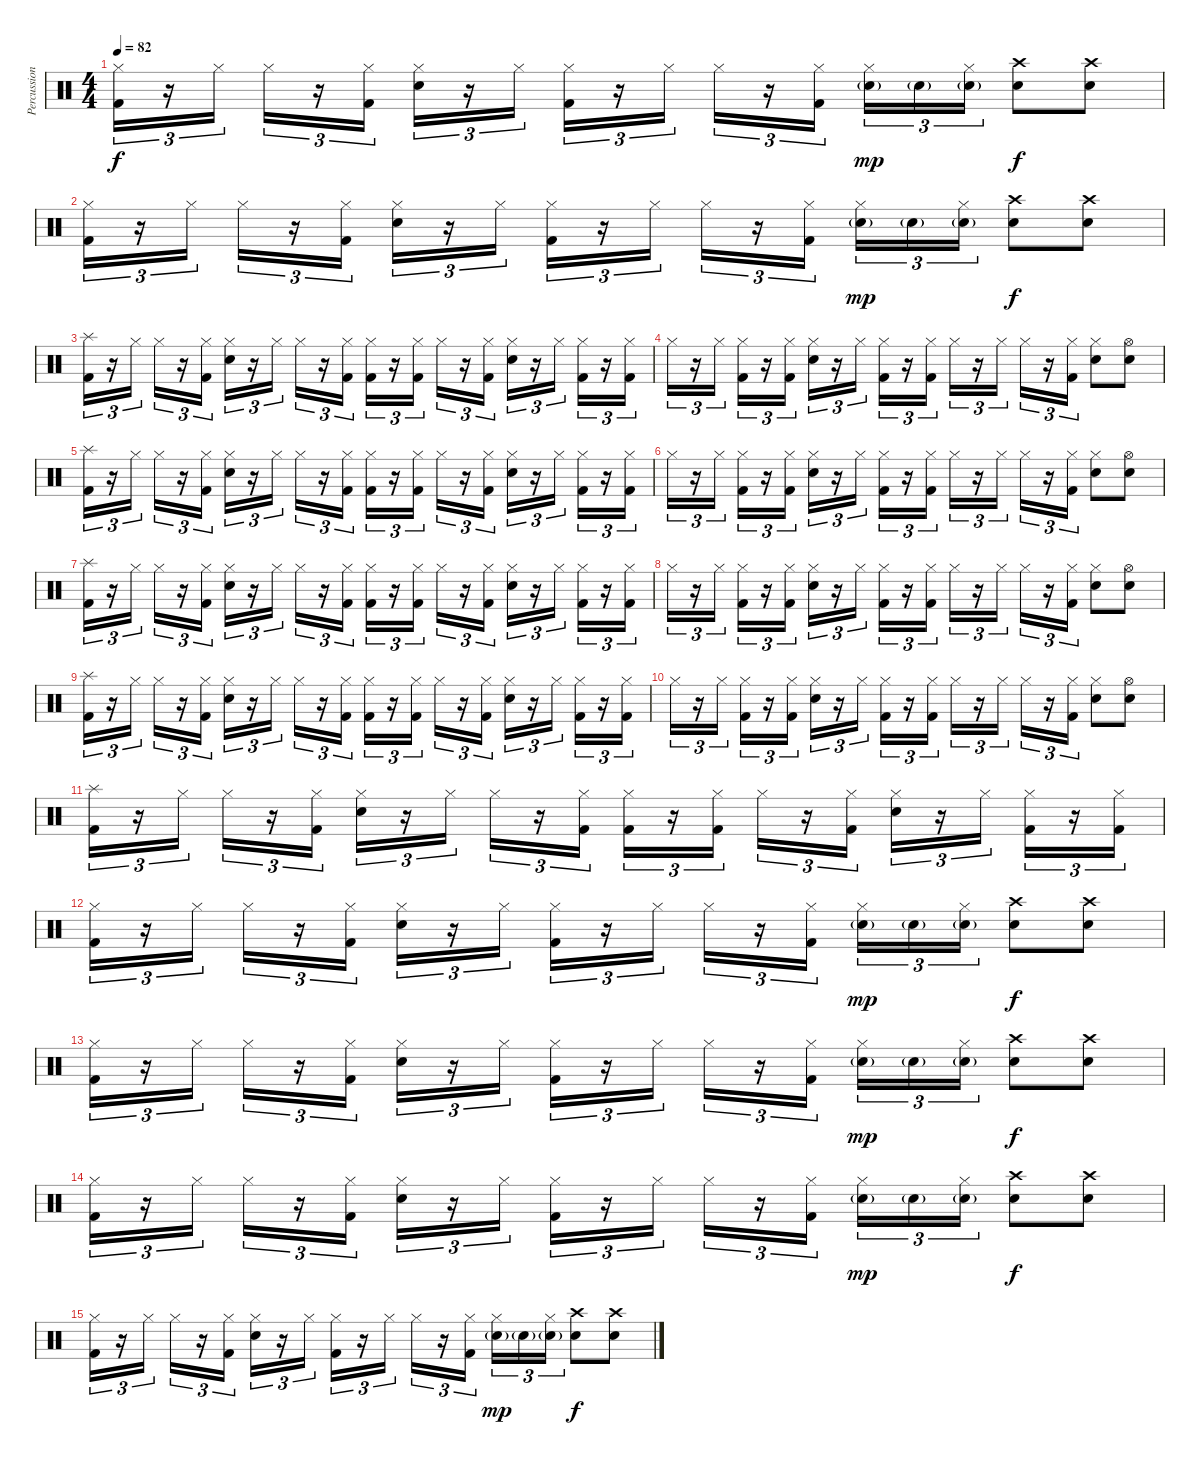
\track ("Percussioni" "Percussion") {instrument percussion}
\staff {score}
\articulation defaults
\ts (4 4)
\tempo 82
\clef neutral
\ks c
("Hi-Hat (closed)" "Kick (hit) 2").16{tu (3 2) dy f} r.16{tu (3 2)} "Hi-Hat (closed)".16{tu (3 2)} "Hi-Hat (closed)".16{tu (3 2)} r.16{tu (3 2)} ("Hi-Hat (closed)" "Kick (hit) 2").16{tu (3 2)} ("Hi-Hat (closed)" "Snare (hit) 2").16{tu (3 2)} r.16{tu (3 2)} "Hi-Hat (closed)".16{tu (3 2)} ("Hi-Hat (closed)" "Kick (hit) 2").16{tu (3 2)} r.16{tu (3 2)} "Hi-Hat (closed)".16{tu (3 2)} "Hi-Hat (closed)".16{tu (3 2)} r.16{tu (3 2)} ("Hi-Hat (closed)" "Kick (hit) 2").16{tu (3 2)} ("Hi-Hat (closed)" "Snare (hit) 2"{g}).16{tu (3 2) dy mp} "Snare (hit) 2"{g}.16{tu (3 2)} ("Hi-Hat (closed)" "Snare (hit) 2"{g}).16{tu (3 2)} ("Crash high (hit)" "Snare (hit) 2").8{dy f} ("Crash high (hit)" "Snare (hit) 2").8 |
("Hi-Hat (closed)" "Kick (hit) 2").16{tu (3 2)} r.16{tu (3 2)} "Hi-Hat (closed)".16{tu (3 2)} "Hi-Hat (closed)".16{tu (3 2)} r.16{tu (3 2)} ("Hi-Hat (closed)" "Kick (hit) 2").16{tu (3 2)} ("Hi-Hat (closed)" "Snare (hit) 2").16{tu (3 2)} r.16{tu (3 2)} "Hi-Hat (closed)".16{tu (3 2)} ("Hi-Hat (closed)" "Kick (hit) 2").16{tu (3 2)} r.16{tu (3 2)} "Hi-Hat (closed)".16{tu (3 2)} "Hi-Hat (closed)".16{tu (3 2)} r.16{tu (3 2)} ("Hi-Hat (closed)" "Kick (hit) 2").16{tu (3 2)} ("Hi-Hat (closed)" "Snare (hit) 2"{g}).16{tu (3 2) dy mp} "Snare (hit) 2"{g}.16{tu (3 2)} ("Hi-Hat (closed)" "Snare (hit) 2"{g}).16{tu (3 2)} ("Crash high (hit)" "Snare (hit) 2").8{dy f} ("Crash high (hit)" "Snare (hit) 2").8 |
("Splash (hit)" "Kick (hit) 2").16{tu (3 2)} r.16{tu (3 2)} "Hi-Hat (closed)".16{tu (3 2)} "Hi-Hat (closed)".16{tu (3 2)} r.16{tu (3 2)} ("Hi-Hat (closed)" "Kick (hit) 2").16{tu (3 2)} ("Hi-Hat (closed)" "Snare (hit) 2").16{tu (3 2)} r.16{tu (3 2)} "Hi-Hat (closed)".16{tu (3 2)} "Hi-Hat (closed)".16{tu (3 2)} r.16{tu (3 2)} ("Hi-Hat (closed)" "Kick (hit) 2").16{tu (3 2)} ("Hi-Hat (closed)" "Kick (hit) 2").16{tu (3 2)} r.16{tu (3 2)} ("Hi-Hat (closed)" "Kick (hit) 2").16{tu (3 2)} "Hi-Hat (closed)".16{tu (3 2)} r.16{tu (3 2)} ("Hi-Hat (closed)" "Kick (hit) 2").16{tu (3 2)} ("Hi-Hat (closed)" "Snare (hit) 2").16{tu (3 2)} r.16{tu (3 2)} "Hi-Hat (closed)".16{tu (3 2)} ("Hi-Hat (closed)" "Kick (hit) 2").16{tu (3 2)} r.16{tu (3 2)} ("Hi-Hat (closed)" "Kick (hit) 2").16{tu (3 2)} |
"Hi-Hat (closed)".16{tu (3 2)} r.16{tu (3 2)} "Hi-Hat (closed)".16{tu (3 2)} ("Hi-Hat (closed)" "Kick (hit) 2").16{tu (3 2)} r.16{tu (3 2)} ("Hi-Hat (closed)" "Kick (hit) 2").16{tu (3 2)} ("Hi-Hat (closed)" "Snare (hit) 2").16{tu (3 2)} r.16{tu (3 2)} "Hi-Hat (closed)".16{tu (3 2)} ("Hi-Hat (closed)" "Kick (hit) 2").16{tu (3 2)} r.16{tu (3 2)} ("Hi-Hat (closed)" "Kick (hit) 2").16{tu (3 2)} "Hi-Hat (closed)".16{tu (3 2)} r.16{tu (3 2)} "Hi-Hat (closed)".16{tu (3 2)} "Hi-Hat (closed)".16{tu (3 2)} r.16{tu (3 2)} ("Hi-Hat (closed)" "Kick (hit) 2").16{tu (3 2)} ("Hi-Hat (closed)" "Snare (hit) 2").8 ("Hi-Hat (open)" "Snare (hit) 2").8 |
("Splash (hit)" "Kick (hit) 2").16{tu (3 2)} r.16{tu (3 2)} "Hi-Hat (closed)".16{tu (3 2)} "Hi-Hat (closed)".16{tu (3 2)} r.16{tu (3 2)} ("Hi-Hat (closed)" "Kick (hit) 2").16{tu (3 2)} ("Hi-Hat (closed)" "Snare (hit) 2").16{tu (3 2)} r.16{tu (3 2)} "Hi-Hat (closed)".16{tu (3 2)} "Hi-Hat (closed)".16{tu (3 2)} r.16{tu (3 2)} ("Hi-Hat (closed)" "Kick (hit) 2").16{tu (3 2)} ("Hi-Hat (closed)" "Kick (hit) 2").16{tu (3 2)} r.16{tu (3 2)} ("Hi-Hat (closed)" "Kick (hit) 2").16{tu (3 2)} "Hi-Hat (closed)".16{tu (3 2)} r.16{tu (3 2)} ("Hi-Hat (closed)" "Kick (hit) 2").16{tu (3 2)} ("Hi-Hat (closed)" "Snare (hit) 2").16{tu (3 2)} r.16{tu (3 2)} "Hi-Hat (closed)".16{tu (3 2)} ("Hi-Hat (closed)" "Kick (hit) 2").16{tu (3 2)} r.16{tu (3 2)} ("Hi-Hat (closed)" "Kick (hit) 2").16{tu (3 2)} |
"Hi-Hat (closed)".16{tu (3 2)} r.16{tu (3 2)} "Hi-Hat (closed)".16{tu (3 2)} ("Hi-Hat (closed)" "Kick (hit) 2").16{tu (3 2)} r.16{tu (3 2)} ("Hi-Hat (closed)" "Kick (hit) 2").16{tu (3 2)} ("Hi-Hat (closed)" "Snare (hit) 2").16{tu (3 2)} r.16{tu (3 2)} "Hi-Hat (closed)".16{tu (3 2)} ("Hi-Hat (closed)" "Kick (hit) 2").16{tu (3 2)} r.16{tu (3 2)} ("Hi-Hat (closed)" "Kick (hit) 2").16{tu (3 2)} "Hi-Hat (closed)".16{tu (3 2)} r.16{tu (3 2)} "Hi-Hat (closed)".16{tu (3 2)} "Hi-Hat (closed)".16{tu (3 2)} r.16{tu (3 2)} ("Hi-Hat (closed)" "Kick (hit) 2").16{tu (3 2)} ("Hi-Hat (closed)" "Snare (hit) 2").8 ("Hi-Hat (open)" "Snare (hit) 2").8 |
("Splash (hit)" "Kick (hit) 2").16{tu (3 2)} r.16{tu (3 2)} "Hi-Hat (closed)".16{tu (3 2)} "Hi-Hat (closed)".16{tu (3 2)} r.16{tu (3 2)} ("Hi-Hat (closed)" "Kick (hit) 2").16{tu (3 2)} ("Hi-Hat (closed)" "Snare (hit) 2").16{tu (3 2)} r.16{tu (3 2)} "Hi-Hat (closed)".16{tu (3 2)} "Hi-Hat (closed)".16{tu (3 2)} r.16{tu (3 2)} ("Hi-Hat (closed)" "Kick (hit) 2").16{tu (3 2)} ("Hi-Hat (closed)" "Kick (hit) 2").16{tu (3 2)} r.16{tu (3 2)} ("Hi-Hat (closed)" "Kick (hit) 2").16{tu (3 2)} "Hi-Hat (closed)".16{tu (3 2)} r.16{tu (3 2)} ("Hi-Hat (closed)" "Kick (hit) 2").16{tu (3 2)} ("Hi-Hat (closed)" "Snare (hit) 2").16{tu (3 2)} r.16{tu (3 2)} "Hi-Hat (closed)".16{tu (3 2)} ("Hi-Hat (closed)" "Kick (hit) 2").16{tu (3 2)} r.16{tu (3 2)} ("Hi-Hat (closed)" "Kick (hit) 2").16{tu (3 2)} |
"Hi-Hat (closed)".16{tu (3 2)} r.16{tu (3 2)} "Hi-Hat (closed)".16{tu (3 2)} ("Hi-Hat (closed)" "Kick (hit) 2").16{tu (3 2)} r.16{tu (3 2)} ("Hi-Hat (closed)" "Kick (hit) 2").16{tu (3 2)} ("Hi-Hat (closed)" "Snare (hit) 2").16{tu (3 2)} r.16{tu (3 2)} "Hi-Hat (closed)".16{tu (3 2)} ("Hi-Hat (closed)" "Kick (hit) 2").16{tu (3 2)} r.16{tu (3 2)} ("Hi-Hat (closed)" "Kick (hit) 2").16{tu (3 2)} "Hi-Hat (closed)".16{tu (3 2)} r.16{tu (3 2)} "Hi-Hat (closed)".16{tu (3 2)} "Hi-Hat (closed)".16{tu (3 2)} r.16{tu (3 2)} ("Hi-Hat (closed)" "Kick (hit) 2").16{tu (3 2)} ("Hi-Hat (closed)" "Snare (hit) 2").8 ("Hi-Hat (open)" "Snare (hit) 2").8 |
("Splash (hit)" "Kick (hit) 2").16{tu (3 2)} r.16{tu (3 2)} "Hi-Hat (closed)".16{tu (3 2)} "Hi-Hat (closed)".16{tu (3 2)} r.16{tu (3 2)} ("Hi-Hat (closed)" "Kick (hit) 2").16{tu (3 2)} ("Hi-Hat (closed)" "Snare (hit) 2").16{tu (3 2)} r.16{tu (3 2)} "Hi-Hat (closed)".16{tu (3 2)} "Hi-Hat (closed)".16{tu (3 2)} r.16{tu (3 2)} ("Hi-Hat (closed)" "Kick (hit) 2").16{tu (3 2)} ("Hi-Hat (closed)" "Kick (hit) 2").16{tu (3 2)} r.16{tu (3 2)} ("Hi-Hat (closed)" "Kick (hit) 2").16{tu (3 2)} "Hi-Hat (closed)".16{tu (3 2)} r.16{tu (3 2)} ("Hi-Hat (closed)" "Kick (hit) 2").16{tu (3 2)} ("Hi-Hat (closed)" "Snare (hit) 2").16{tu (3 2)} r.16{tu (3 2)} "Hi-Hat (closed)".16{tu (3 2)} ("Hi-Hat (closed)" "Kick (hit) 2").16{tu (3 2)} r.16{tu (3 2)} ("Hi-Hat (closed)" "Kick (hit) 2").16{tu (3 2)} |
"Hi-Hat (closed)".16{tu (3 2)} r.16{tu (3 2)} "Hi-Hat (closed)".16{tu (3 2)} ("Hi-Hat (closed)" "Kick (hit) 2").16{tu (3 2)} r.16{tu (3 2)} ("Hi-Hat (closed)" "Kick (hit) 2").16{tu (3 2)} ("Hi-Hat (closed)" "Snare (hit) 2").16{tu (3 2)} r.16{tu (3 2)} "Hi-Hat (closed)".16{tu (3 2)} ("Hi-Hat (closed)" "Kick (hit) 2").16{tu (3 2)} r.16{tu (3 2)} ("Hi-Hat (closed)" "Kick (hit) 2").16{tu (3 2)} "Hi-Hat (closed)".16{tu (3 2)} r.16{tu (3 2)} "Hi-Hat (closed)".16{tu (3 2)} "Hi-Hat (closed)".16{tu (3 2)} r.16{tu (3 2)} ("Hi-Hat (closed)" "Kick (hit) 2").16{tu (3 2)} ("Hi-Hat (closed)" "Snare (hit) 2").8 ("Hi-Hat (open)" "Snare (hit) 2").8 |
("Splash (hit)" "Kick (hit) 2").16{tu (3 2)} r.16{tu (3 2)} "Hi-Hat (closed)".16{tu (3 2)} "Hi-Hat (closed)".16{tu (3 2)} r.16{tu (3 2)} ("Hi-Hat (closed)" "Kick (hit) 2").16{tu (3 2)} ("Hi-Hat (closed)" "Snare (hit) 2").16{tu (3 2)} r.16{tu (3 2)} "Hi-Hat (closed)".16{tu (3 2)} "Hi-Hat (closed)".16{tu (3 2)} r.16{tu (3 2)} ("Hi-Hat (closed)" "Kick (hit) 2").16{tu (3 2)} ("Hi-Hat (closed)" "Kick (hit) 2").16{tu (3 2)} r.16{tu (3 2)} ("Hi-Hat (closed)" "Kick (hit) 2").16{tu (3 2)} "Hi-Hat (closed)".16{tu (3 2)} r.16{tu (3 2)} ("Hi-Hat (closed)" "Kick (hit) 2").16{tu (3 2)} ("Hi-Hat (closed)" "Snare (hit) 2").16{tu (3 2)} r.16{tu (3 2)} "Hi-Hat (closed)".16{tu (3 2)} ("Hi-Hat (closed)" "Kick (hit) 2").16{tu (3 2)} r.16{tu (3 2)} ("Hi-Hat (closed)" "Kick (hit) 2").16{tu (3 2)} |
("Hi-Hat (closed)" "Kick (hit) 2").16{tu (3 2)} r.16{tu (3 2)} "Hi-Hat (closed)".16{tu (3 2)} "Hi-Hat (closed)".16{tu (3 2)} r.16{tu (3 2)} ("Hi-Hat (closed)" "Kick (hit) 2").16{tu (3 2)} ("Hi-Hat (closed)" "Snare (hit) 2").16{tu (3 2)} r.16{tu (3 2)} "Hi-Hat (closed)".16{tu (3 2)} ("Hi-Hat (closed)" "Kick (hit) 2").16{tu (3 2)} r.16{tu (3 2)} "Hi-Hat (closed)".16{tu (3 2)} "Hi-Hat (closed)".16{tu (3 2)} r.16{tu (3 2)} ("Hi-Hat (closed)" "Kick (hit) 2").16{tu (3 2)} ("Hi-Hat (closed)" "Snare (hit) 2"{g}).16{tu (3 2) dy mp} "Snare (hit) 2"{g}.16{tu (3 2)} ("Hi-Hat (closed)" "Snare (hit) 2"{g}).16{tu (3 2)} ("Crash high (hit)" "Snare (hit) 2").8{dy f} ("Crash high (hit)" "Snare (hit) 2").8 |
("Hi-Hat (closed)" "Kick (hit) 2").16{tu (3 2)} r.16{tu (3 2)} "Hi-Hat (closed)".16{tu (3 2)} "Hi-Hat (closed)".16{tu (3 2)} r.16{tu (3 2)} ("Hi-Hat (closed)" "Kick (hit) 2").16{tu (3 2)} ("Hi-Hat (closed)" "Snare (hit) 2").16{tu (3 2)} r.16{tu (3 2)} "Hi-Hat (closed)".16{tu (3 2)} ("Hi-Hat (closed)" "Kick (hit) 2").16{tu (3 2)} r.16{tu (3 2)} "Hi-Hat (closed)".16{tu (3 2)} "Hi-Hat (closed)".16{tu (3 2)} r.16{tu (3 2)} ("Hi-Hat (closed)" "Kick (hit) 2").16{tu (3 2)} ("Hi-Hat (closed)" "Snare (hit) 2"{g}).16{tu (3 2) dy mp} "Snare (hit) 2"{g}.16{tu (3 2)} ("Hi-Hat (closed)" "Snare (hit) 2"{g}).16{tu (3 2)} ("Crash high (hit)" "Snare (hit) 2").8{dy f} ("Crash high (hit)" "Snare (hit) 2").8 |
("Hi-Hat (closed)" "Kick (hit) 2").16{tu (3 2)} r.16{tu (3 2)} "Hi-Hat (closed)".16{tu (3 2)} "Hi-Hat (closed)".16{tu (3 2)} r.16{tu (3 2)} ("Hi-Hat (closed)" "Kick (hit) 2").16{tu (3 2)} ("Hi-Hat (closed)" "Snare (hit) 2").16{tu (3 2)} r.16{tu (3 2)} "Hi-Hat (closed)".16{tu (3 2)} ("Hi-Hat (closed)" "Kick (hit) 2").16{tu (3 2)} r.16{tu (3 2)} "Hi-Hat (closed)".16{tu (3 2)} "Hi-Hat (closed)".16{tu (3 2)} r.16{tu (3 2)} ("Hi-Hat (closed)" "Kick (hit) 2").16{tu (3 2)} ("Hi-Hat (closed)" "Snare (hit) 2"{g}).16{tu (3 2) dy mp} "Snare (hit) 2"{g}.16{tu (3 2)} ("Hi-Hat (closed)" "Snare (hit) 2"{g}).16{tu (3 2)} ("Crash high (hit)" "Snare (hit) 2").8{dy f} ("Crash high (hit)" "Snare (hit) 2").8 |
("Hi-Hat (closed)" "Kick (hit) 2").16{tu (3 2)} r.16{tu (3 2)} "Hi-Hat (closed)".16{tu (3 2)} "Hi-Hat (closed)".16{tu (3 2)} r.16{tu (3 2)} ("Hi-Hat (closed)" "Kick (hit) 2").16{tu (3 2)} ("Hi-Hat (closed)" "Snare (hit) 2").16{tu (3 2)} r.16{tu (3 2)} "Hi-Hat (closed)".16{tu (3 2)} ("Hi-Hat (closed)" "Kick (hit) 2").16{tu (3 2)} r.16{tu (3 2)} "Hi-Hat (closed)".16{tu (3 2)} "Hi-Hat (closed)".16{tu (3 2)} r.16{tu (3 2)} ("Hi-Hat (closed)" "Kick (hit) 2").16{tu (3 2)} ("Hi-Hat (closed)" "Snare (hit) 2"{g}).16{tu (3 2) dy mp} "Snare (hit) 2"{g}.16{tu (3 2)} ("Hi-Hat (closed)" "Snare (hit) 2"{g}).16{tu (3 2)} ("Crash high (hit)" "Snare (hit) 2").8{dy f} ("Crash high (hit)" "Snare (hit) 2").8
